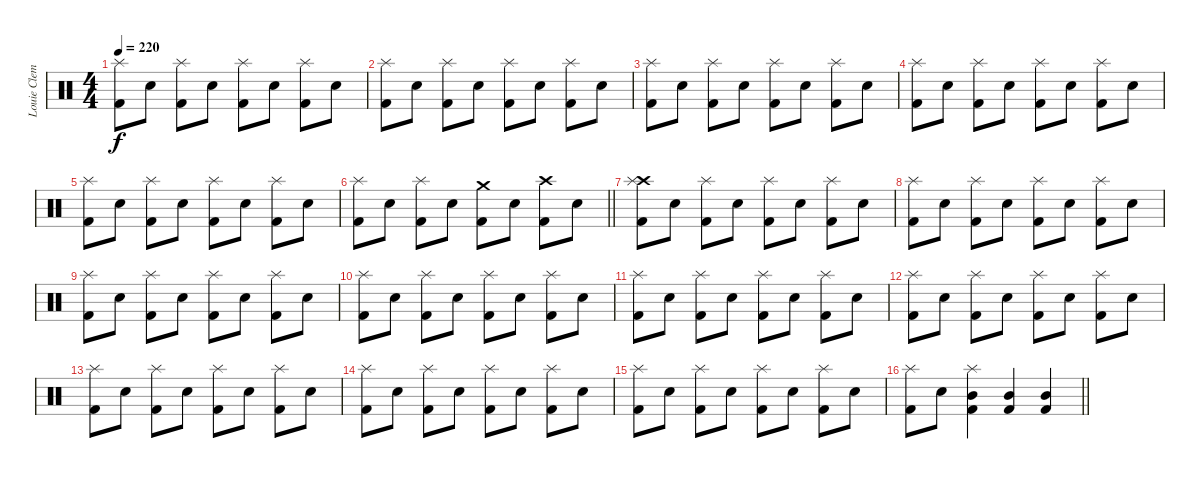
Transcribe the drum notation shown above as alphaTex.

\track ("Louie Clemente (Drums)" "Louie Clem") {instrument percussion}
\staff {score}
\articulation defaults
\ts (4 4)
\tempo 220
\clef neutral
\ks c
("Splash (hit)" "Kick (hit) 2").8{dy f} "Electric Snare (hit)".8 ("Splash (hit)" "Kick (hit) 2").8 "Electric Snare (hit)".8 ("Splash (hit)" "Kick (hit) 2").8 "Electric Snare (hit)".8 ("Splash (hit)" "Kick (hit) 2").8 "Electric Snare (hit)".8 |
("Splash (hit)" "Kick (hit) 2").8 "Electric Snare (hit)".8 ("Splash (hit)" "Kick (hit) 2").8 "Electric Snare (hit)".8 ("Splash (hit)" "Kick (hit) 2").8 "Electric Snare (hit)".8 ("Splash (hit)" "Kick (hit) 2").8 "Electric Snare (hit)".8 |
("Splash (hit)" "Kick (hit) 2").8 "Electric Snare (hit)".8 ("Splash (hit)" "Kick (hit) 2").8 "Electric Snare (hit)".8 ("Splash (hit)" "Kick (hit) 2").8 "Electric Snare (hit)".8 ("Splash (hit)" "Kick (hit) 2").8 "Electric Snare (hit)".8 |
("Splash (hit)" "Kick (hit) 2").8 "Electric Snare (hit)".8 ("Splash (hit)" "Kick (hit) 2").8 "Electric Snare (hit)".8 ("Splash (hit)" "Kick (hit) 2").8 "Electric Snare (hit)".8 ("Splash (hit)" "Kick (hit) 2").8 "Electric Snare (hit)".8 |
("Splash (hit)" "Kick (hit) 2").8 "Electric Snare (hit)".8 ("Splash (hit)" "Kick (hit) 2").8 "Electric Snare (hit)".8 ("Splash (hit)" "Kick (hit) 2").8 "Electric Snare (hit)".8 ("Splash (hit)" "Kick (hit) 2").8 "Electric Snare (hit)".8 |
\barLineRight lightlight
("Splash (hit)" "Kick (hit) 2").8 "Electric Snare (hit)".8 ("Splash (hit)" "Kick (hit) 2").8 "Electric Snare (hit)".8 ("Crash medium (hit)" "Kick (hit) 2").8 "Electric Snare (hit)".8 ("Crash high (hit)" "Kick (hit) 2").8 "Electric Snare (hit)".8 |
("Crash high (hit)" "Splash (hit)" "Kick (hit) 2").8 "Electric Snare (hit)".8 ("Splash (hit)" "Kick (hit) 2").8 "Electric Snare (hit)".8 ("Splash (hit)" "Kick (hit) 2").8 "Electric Snare (hit)".8 ("Splash (hit)" "Kick (hit) 2").8 "Electric Snare (hit)".8 |
("Splash (hit)" "Kick (hit) 2").8 "Electric Snare (hit)".8 ("Splash (hit)" "Kick (hit) 2").8 "Electric Snare (hit)".8 ("Splash (hit)" "Kick (hit) 2").8 "Electric Snare (hit)".8 ("Splash (hit)" "Kick (hit) 2").8 "Electric Snare (hit)".8 |
("Splash (hit)" "Kick (hit) 2").8 "Electric Snare (hit)".8 ("Splash (hit)" "Kick (hit) 2").8 "Electric Snare (hit)".8 ("Splash (hit)" "Kick (hit) 2").8 "Electric Snare (hit)".8 ("Splash (hit)" "Kick (hit) 2").8 "Electric Snare (hit)".8 |
("Splash (hit)" "Kick (hit) 2").8 "Electric Snare (hit)".8 ("Splash (hit)" "Kick (hit) 2").8 "Electric Snare (hit)".8 ("Splash (hit)" "Kick (hit) 2").8 "Electric Snare (hit)".8 ("Splash (hit)" "Kick (hit) 2").8 "Electric Snare (hit)".8 |
("Splash (hit)" "Kick (hit) 2").8 "Electric Snare (hit)".8 ("Splash (hit)" "Kick (hit) 2").8 "Electric Snare (hit)".8 ("Splash (hit)" "Kick (hit) 2").8 "Electric Snare (hit)".8 ("Splash (hit)" "Kick (hit) 2").8 "Electric Snare (hit)".8 |
("Splash (hit)" "Kick (hit) 2").8 "Electric Snare (hit)".8 ("Splash (hit)" "Kick (hit) 2").8 "Electric Snare (hit)".8 ("Splash (hit)" "Kick (hit) 2").8 "Electric Snare (hit)".8 ("Splash (hit)" "Kick (hit) 2").8 "Electric Snare (hit)".8 |
("Splash (hit)" "Kick (hit) 2").8 "Electric Snare (hit)".8 ("Splash (hit)" "Kick (hit) 2").8 "Electric Snare (hit)".8 ("Splash (hit)" "Kick (hit) 2").8 "Electric Snare (hit)".8 ("Splash (hit)" "Kick (hit) 2").8 "Electric Snare (hit)".8 |
("Splash (hit)" "Kick (hit) 2").8 "Electric Snare (hit)".8 ("Splash (hit)" "Kick (hit) 2").8 "Electric Snare (hit)".8 ("Splash (hit)" "Kick (hit) 2").8 "Electric Snare (hit)".8 ("Splash (hit)" "Kick (hit) 2").8 "Electric Snare (hit)".8 |
("Splash (hit)" "Kick (hit) 2").8 "Electric Snare (hit)".8 ("Splash (hit)" "Kick (hit) 2").8 "Electric Snare (hit)".8 ("Splash (hit)" "Kick (hit) 2").8 "Electric Snare (hit)".8 ("Splash (hit)" "Kick (hit) 2").8 "Electric Snare (hit)".8 |
\barLineRight lightlight
("Splash (hit)" "Kick (hit) 2").8 "Electric Snare (hit)".8 ("Splash (hit)" "Mid Tom (hit)" "Kick (hit) 2").4 ("Mid Tom (hit)" "Kick (hit) 2").4 ("Mid Tom (hit)" "Kick (hit) 2").4
